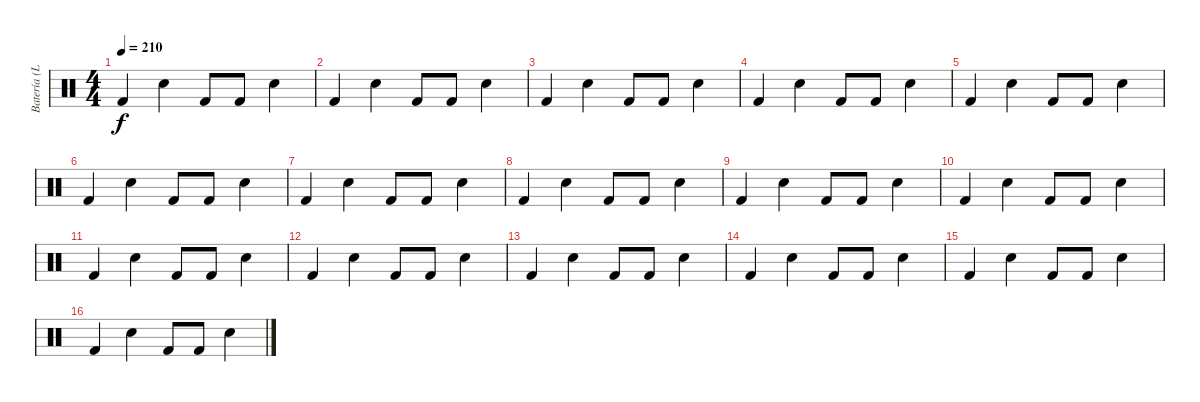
\track ("Batería (Leo)" "Batería (L") {instrument percussion}
\staff {score}
\articulation defaults
\ts (4 4)
\tempo 210
\clef neutral
\ks c "Kick (hit) 2".4{dy f} "Snare (hit) 2".4 "Kick (hit) 2".8 "Kick (hit) 2".8 "Snare (hit) 2".4
|
"Kick (hit) 2".4 "Snare (hit) 2".4 "Kick (hit) 2".8 "Kick (hit) 2".8 "Snare (hit) 2".4 |
"Kick (hit) 2".4 "Snare (hit) 2".4 "Kick (hit) 2".8 "Kick (hit) 2".8 "Snare (hit) 2".4 |
"Kick (hit) 2".4 "Snare (hit) 2".4 "Kick (hit) 2".8 "Kick (hit) 2".8 "Snare (hit) 2".4 |
"Kick (hit) 2".4 "Snare (hit) 2".4 "Kick (hit) 2".8 "Kick (hit) 2".8 "Snare (hit) 2".4 |
"Kick (hit) 2".4 "Snare (hit) 2".4 "Kick (hit) 2".8 "Kick (hit) 2".8 "Snare (hit) 2".4 |
"Kick (hit) 2".4 "Snare (hit) 2".4 "Kick (hit) 2".8 "Kick (hit) 2".8 "Snare (hit) 2".4 |
"Kick (hit) 2".4 "Snare (hit) 2".4 "Kick (hit) 2".8 "Kick (hit) 2".8 "Snare (hit) 2".4 |
"Kick (hit) 2".4 "Snare (hit) 2".4 "Kick (hit) 2".8 "Kick (hit) 2".8 "Snare (hit) 2".4 |
"Kick (hit) 2".4 "Snare (hit) 2".4 "Kick (hit) 2".8 "Kick (hit) 2".8 "Snare (hit) 2".4 |
"Kick (hit) 2".4 "Snare (hit) 2".4 "Kick (hit) 2".8 "Kick (hit) 2".8 "Snare (hit) 2".4 |
"Kick (hit) 2".4 "Snare (hit) 2".4 "Kick (hit) 2".8 "Kick (hit) 2".8 "Snare (hit) 2".4 |
"Kick (hit) 2".4 "Snare (hit) 2".4 "Kick (hit) 2".8 "Kick (hit) 2".8 "Snare (hit) 2".4 |
"Kick (hit) 2".4 "Snare (hit) 2".4 "Kick (hit) 2".8 "Kick (hit) 2".8 "Snare (hit) 2".4 |
"Kick (hit) 2".4 "Snare (hit) 2".4 "Kick (hit) 2".8 "Kick (hit) 2".8 "Snare (hit) 2".4 |
"Kick (hit) 2".4 "Snare (hit) 2".4 "Kick (hit) 2".8 "Kick (hit) 2".8 "Snare (hit) 2".4
